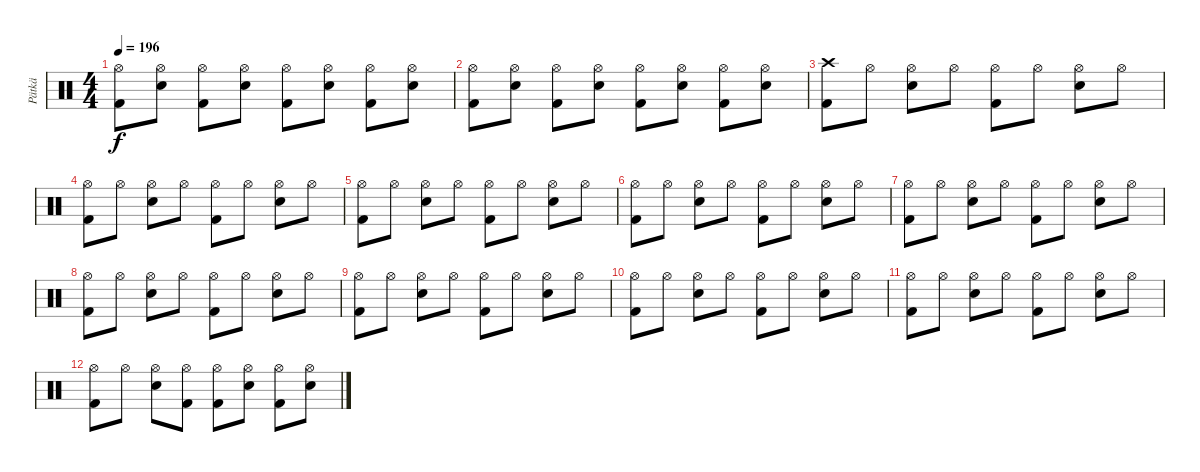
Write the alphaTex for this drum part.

\track ("Pätkä" "Pätkä") {instrument percussion}
\staff {score}
\articulation defaults
\ts (4 4)
\tempo 196
\clef neutral
\ks c
("Hi-Hat (open)" "Kick (hit) 2").8{dy f} ("Hi-Hat (open)" "Electric Snare (hit)").8 ("Hi-Hat (open)" "Kick (hit) 2").8 ("Hi-Hat (open)" "Electric Snare (hit)").8 ("Hi-Hat (open)" "Kick (hit) 2").8 ("Hi-Hat (open)" "Electric Snare (hit)").8 ("Hi-Hat (open)" "Kick (hit) 2").8 ("Hi-Hat (open)" "Electric Snare (hit)").8 |
("Hi-Hat (open)" "Kick (hit) 2").8 ("Hi-Hat (open)" "Electric Snare (hit)").8 ("Hi-Hat (open)" "Kick (hit) 2").8 ("Hi-Hat (open)" "Electric Snare (hit)").8 ("Hi-Hat (open)" "Kick (hit) 2").8 ("Hi-Hat (open)" "Electric Snare (hit)").8 ("Hi-Hat (open)" "Kick (hit) 2").8 ("Hi-Hat (open)" "Electric Snare (hit)").8 |
("Crash high (hit)" "Kick (hit) 2").8 "Hi-Hat (open)".8 ("Hi-Hat (open)" "Electric Snare (hit)").8 "Hi-Hat (open)".8 ("Hi-Hat (open)" "Kick (hit) 2").8 "Hi-Hat (open)".8 ("Hi-Hat (open)" "Electric Snare (hit)").8 "Hi-Hat (open)".8 |
("Hi-Hat (open)" "Kick (hit) 2").8 "Hi-Hat (open)".8 ("Hi-Hat (open)" "Electric Snare (hit)").8 "Hi-Hat (open)".8 ("Hi-Hat (open)" "Kick (hit) 2").8 "Hi-Hat (open)".8 ("Hi-Hat (open)" "Electric Snare (hit)").8 "Hi-Hat (open)".8 |
("Hi-Hat (open)" "Kick (hit) 2").8 "Hi-Hat (open)".8 ("Hi-Hat (open)" "Electric Snare (hit)").8 "Hi-Hat (open)".8 ("Hi-Hat (open)" "Kick (hit) 2").8 "Hi-Hat (open)".8 ("Hi-Hat (open)" "Electric Snare (hit)").8 "Hi-Hat (open)".8 |
("Hi-Hat (open)" "Kick (hit) 2").8 "Hi-Hat (open)".8 ("Hi-Hat (open)" "Electric Snare (hit)").8 "Hi-Hat (open)".8 ("Hi-Hat (open)" "Kick (hit) 2").8 "Hi-Hat (open)".8 ("Hi-Hat (open)" "Electric Snare (hit)").8 "Hi-Hat (open)".8 |
("Hi-Hat (open)" "Kick (hit) 2").8 "Hi-Hat (open)".8 ("Hi-Hat (open)" "Electric Snare (hit)").8 "Hi-Hat (open)".8 ("Hi-Hat (open)" "Kick (hit) 2").8 "Hi-Hat (open)".8 ("Hi-Hat (open)" "Electric Snare (hit)").8 "Hi-Hat (open)".8 |
("Hi-Hat (open)" "Kick (hit) 2").8 "Hi-Hat (open)".8 ("Hi-Hat (open)" "Electric Snare (hit)").8 "Hi-Hat (open)".8 ("Hi-Hat (open)" "Kick (hit) 2").8 "Hi-Hat (open)".8 ("Hi-Hat (open)" "Electric Snare (hit)").8 "Hi-Hat (open)".8 |
("Hi-Hat (open)" "Kick (hit) 2").8 "Hi-Hat (open)".8 ("Hi-Hat (open)" "Electric Snare (hit)").8 "Hi-Hat (open)".8 ("Hi-Hat (open)" "Kick (hit) 2").8 "Hi-Hat (open)".8 ("Hi-Hat (open)" "Electric Snare (hit)").8 "Hi-Hat (open)".8 |
("Hi-Hat (open)" "Kick (hit) 2").8 "Hi-Hat (open)".8 ("Hi-Hat (open)" "Electric Snare (hit)").8 "Hi-Hat (open)".8 ("Hi-Hat (open)" "Kick (hit) 2").8 "Hi-Hat (open)".8 ("Hi-Hat (open)" "Electric Snare (hit)").8 "Hi-Hat (open)".8 |
("Hi-Hat (open)" "Kick (hit) 2").8 "Hi-Hat (open)".8 ("Hi-Hat (open)" "Electric Snare (hit)").8 "Hi-Hat (open)".8 ("Hi-Hat (open)" "Kick (hit) 2").8 "Hi-Hat (open)".8 ("Hi-Hat (open)" "Electric Snare (hit)").8 "Hi-Hat (open)".8 |
("Hi-Hat (open)" "Kick (hit) 2").8 "Hi-Hat (open)".8 ("Hi-Hat (open)" "Electric Snare (hit)").8 ("Hi-Hat (open)" "Kick (hit) 2").8 ("Hi-Hat (open)" "Kick (hit) 2").8 ("Hi-Hat (open)" "Electric Snare (hit)").8 ("Hi-Hat (open)" "Kick (hit) 2").8 ("Hi-Hat (open)" "Electric Snare (hit)").8
